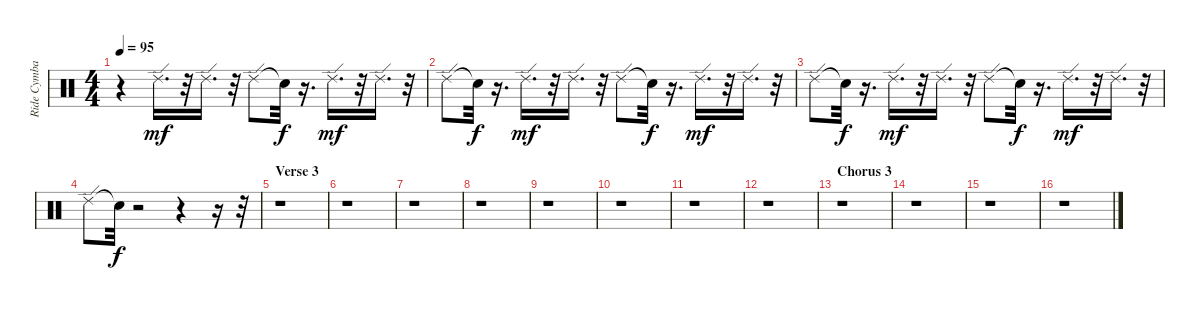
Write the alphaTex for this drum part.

\track ("Ride Cymbal" "Ride Cymba") {instrument percussion}
\staff {score}
\articulation defaults
\ts (4 4)
\tempo 95
\clef neutral
\ks c
r.4{dy f} "Ride (edge) 2".16{d dy mf} r.32 "Ride (edge) 2".16{d} r.32 "Ride (edge) 2".8 "Snare (hit)"{t}.32{dy f} r.16{d} "Ride (edge) 2".16{d dy mf} r.32 "Ride (edge) 2".16{d} r.32 |
"Ride (edge) 2".8 "Snare (hit)"{t}.32{dy f} r.16{d} "Ride (edge) 2".16{d dy mf} r.32 "Ride (edge) 2".16{d} r.32 "Ride (edge) 2".8 "Snare (hit)"{t}.32{dy f} r.16{d} "Ride (edge) 2".16{d dy mf} r.32 "Ride (edge) 2".16{d} r.32 |
"Ride (edge) 2".8 "Snare (hit)"{t}.32{dy f} r.16{d} "Ride (edge) 2".16{d dy mf} r.32 "Ride (edge) 2".16{d} r.32 "Ride (edge) 2".8 "Snare (hit)"{t}.32{dy f} r.16{d} "Ride (edge) 2".16{d dy mf} r.32 "Ride (edge) 2".16{d} r.32 |
"Ride (edge) 2".8 "Snare (hit)"{t}.32{dy f} r.2 r.4 r.16 r.32 |
\section ("" "Verse 3")
r.1 |
r.1 |
r.1 |
r.1 |
r.1 |
r.1 |
r.1 |
r.1 |
\section ("" "Chorus 3")
r.1 |
r.1 |
r.1 |
r.1
